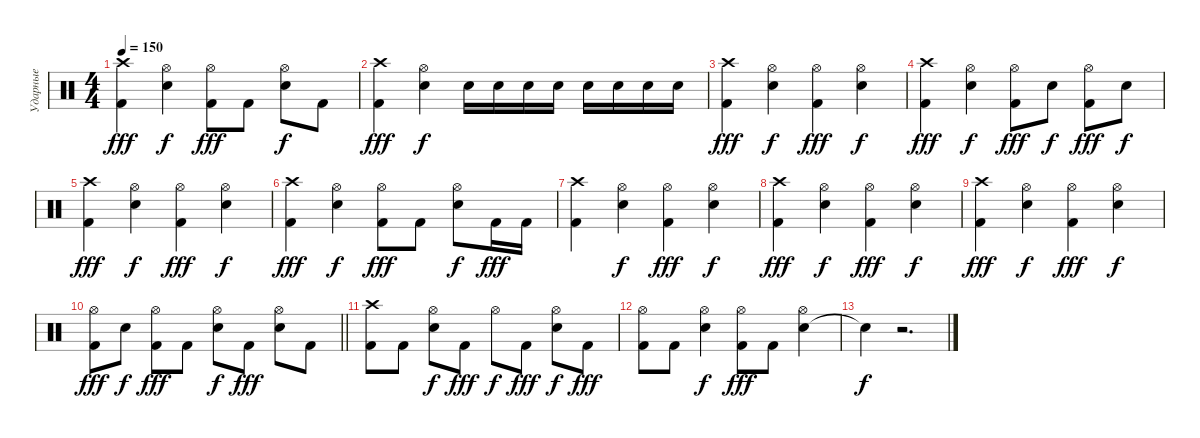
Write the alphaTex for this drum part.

\track ("Ударные" "Ударные") {instrument percussion}
\staff {score}
\articulation defaults
\ts (4 4)
\tempo 150
\clef neutral
\ks c
("Kick (hit) 2" "Crash high (hit)").4{dy fff} ("Snare (hit) 2" "Hi-Hat (open)").4{dy f} ("Kick (hit) 2" "Hi-Hat (open)").8{dy fff} "Kick (hit) 2".8 ("Snare (hit) 2" "Hi-Hat (open)").8{dy f} "Kick (hit) 2".8 |
("Kick (hit) 2" "Crash high (hit)").4{dy fff} ("Snare (hit) 2" "Hi-Hat (open)").4{dy f} "Snare (hit) 2".16 "Snare (hit) 2".16 "Snare (hit) 2".16 "Snare (hit) 2".16 "Snare (hit) 2".16 "Snare (hit) 2".16 "Snare (hit) 2".16 "Snare (hit) 2".16 |
("Kick (hit) 2" "Crash high (hit)").4{dy fff} ("Snare (hit) 2" "Hi-Hat (open)").4{dy f} ("Kick (hit) 2" "Hi-Hat (open)").4{dy fff} ("Snare (hit) 2" "Hi-Hat (open)").4{dy f} |
("Kick (hit) 2" "Crash high (hit)").4{dy fff} ("Snare (hit) 2" "Hi-Hat (open)").4{dy f} ("Kick (hit) 2" "Hi-Hat (open)").8{dy fff} "Snare (hit) 2".8{dy f} ("Kick (hit) 2" "Hi-Hat (open)").8{dy fff} "Snare (hit) 2".8{dy f} |
("Kick (hit) 2" "Crash high (hit)").4{dy fff} ("Snare (hit) 2" "Hi-Hat (open)").4{dy f} ("Kick (hit) 2" "Hi-Hat (open)").4{dy fff} ("Snare (hit) 2" "Hi-Hat (open)").4{dy f} |
("Kick (hit) 2" "Crash high (hit)").4{dy fff} ("Snare (hit) 2" "Hi-Hat (open)").4{dy f} ("Kick (hit) 2" "Hi-Hat (open)").8{dy fff} "Kick (hit) 2".8 ("Snare (hit) 2" "Hi-Hat (open)").8{dy f} "Kick (hit) 2".16{dy fff} "Kick (hit) 2".16 |
("Kick (hit) 2" "Crash high (hit)").4 ("Snare (hit) 2" "Hi-Hat (open)").4{dy f} ("Kick (hit) 2" "Hi-Hat (open)").4{dy fff} ("Snare (hit) 2" "Hi-Hat (open)").4{dy f} |
("Kick (hit) 2" "Crash high (hit)").4{dy fff} ("Snare (hit) 2" "Hi-Hat (open)").4{dy f} ("Kick (hit) 2" "Hi-Hat (open)").4{dy fff} ("Snare (hit) 2" "Hi-Hat (open)").4{dy f} |
("Kick (hit) 2" "Crash high (hit)").4{dy fff} ("Snare (hit) 2" "Hi-Hat (open)").4{dy f} ("Kick (hit) 2" "Hi-Hat (open)").4{dy fff} ("Snare (hit) 2" "Hi-Hat (open)").4{dy f} |
\barLineRight lightlight
("Kick (hit) 2" "Hi-Hat (open)").8{dy fff} "Snare (hit) 2".8{dy f} ("Kick (hit) 2" "Hi-Hat (open)").8{dy fff} "Kick (hit) 2".8 ("Snare (hit) 2" "Hi-Hat (open)").8{dy f} "Kick (hit) 2".8{dy fff} ("Snare (hit) 2" "Hi-Hat (open)").8 "Kick (hit) 2".8 |
("Kick (hit) 2" "Crash high (hit)").8 "Kick (hit) 2".8 ("Snare (hit) 2" "Hi-Hat (open)").8{dy f} "Kick (hit) 2".8{dy fff} "Hi-Hat (open)".8{dy f} "Kick (hit) 2".8{dy fff} ("Snare (hit) 2" "Hi-Hat (open)").8{dy f} "Kick (hit) 2".8{dy fff} |
("Kick (hit) 2" "Hi-Hat (open)").8 "Kick (hit) 2".8 ("Snare (hit) 2" "Hi-Hat (open)").4{dy f} ("Kick (hit) 2" "Hi-Hat (open)").8{dy fff} "Kick (hit) 2".8 ("Snare (hit) 2" "Hi-Hat (open)").4 |
"Snare (hit)"{t}.4{dy f} r.2{d}
